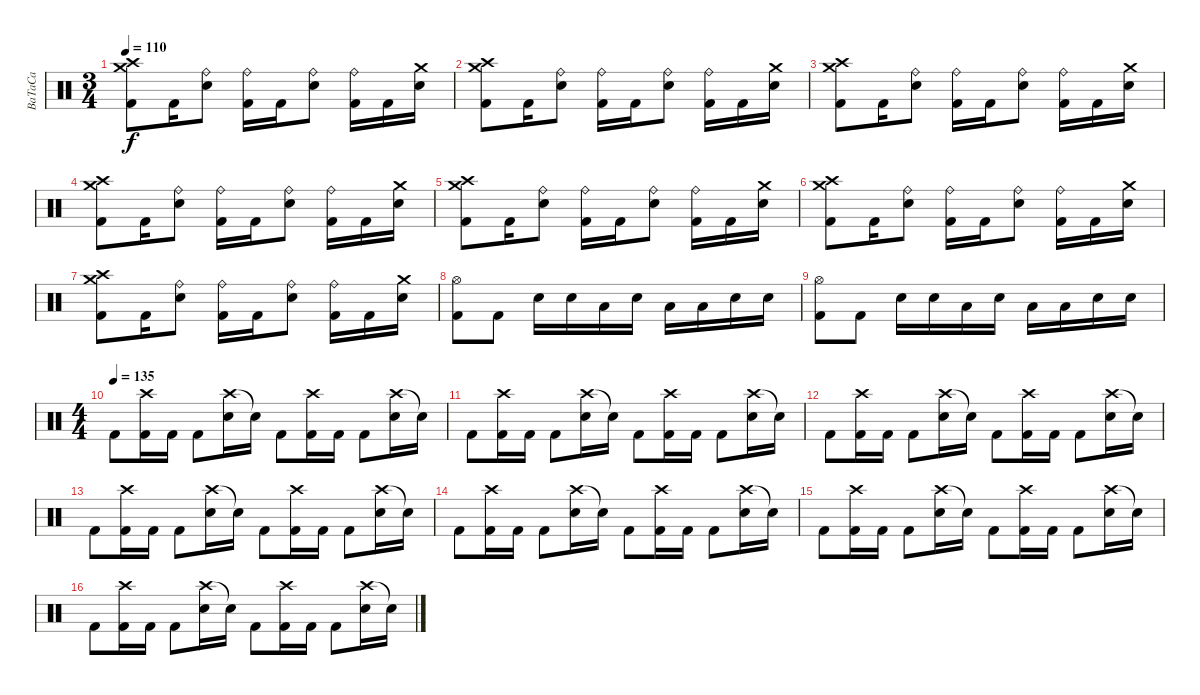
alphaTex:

\track ("BaTaCa" "BaTaCa") {instrument percussion}
\staff {score}
\articulation defaults
\ts (3 4)
\tempo 110
\clef neutral
\ks c
("Crash medium (hit)" "Crash high (hit)" "Kick (hit) 2").8{dy f} "Kick (hit) 2".16 ("Ride (bell)" "Electric Snare (hit)").8 ("Ride (bell)" "Kick (hit) 2").16 "Kick (hit) 2".16 ("Ride (bell)" "Electric Snare (hit)").8 ("Ride (bell)" "Kick (hit) 2").16 "Kick (hit) 2".16 ("Crash medium (hit)" "Electric Snare (hit)").16 |
("Crash medium (hit)" "Crash high (hit)" "Kick (hit) 2").8 "Kick (hit) 2".16 ("Ride (bell)" "Electric Snare (hit)").8 ("Ride (bell)" "Kick (hit) 2").16 "Kick (hit) 2".16 ("Ride (bell)" "Electric Snare (hit)").8 ("Ride (bell)" "Kick (hit) 2").16 "Kick (hit) 2".16 ("Crash medium (hit)" "Electric Snare (hit)").16 |
("Crash medium (hit)" "Crash high (hit)" "Kick (hit) 2").8 "Kick (hit) 2".16 ("Ride (bell)" "Electric Snare (hit)").8 ("Ride (bell)" "Kick (hit) 2").16 "Kick (hit) 2".16 ("Ride (bell)" "Electric Snare (hit)").8 ("Ride (bell)" "Kick (hit) 2").16 "Kick (hit) 2".16 ("Crash medium (hit)" "Electric Snare (hit)").16 |
("Crash medium (hit)" "Crash high (hit)" "Kick (hit) 2").8 "Kick (hit) 2".16 ("Ride (bell)" "Electric Snare (hit)").8 ("Ride (bell)" "Kick (hit) 2").16 "Kick (hit) 2".16 ("Ride (bell)" "Electric Snare (hit)").8 ("Ride (bell)" "Kick (hit) 2").16 "Kick (hit) 2".16 ("Crash medium (hit)" "Electric Snare (hit)").16 |
("Crash medium (hit)" "Crash high (hit)" "Kick (hit) 2").8 "Kick (hit) 2".16 ("Ride (bell)" "Electric Snare (hit)").8 ("Ride (bell)" "Kick (hit) 2").16 "Kick (hit) 2".16 ("Ride (bell)" "Electric Snare (hit)").8 ("Ride (bell)" "Kick (hit) 2").16 "Kick (hit) 2".16 ("Crash medium (hit)" "Electric Snare (hit)").16 |
("Crash medium (hit)" "Crash high (hit)" "Kick (hit) 2").8 "Kick (hit) 2".16 ("Ride (bell)" "Electric Snare (hit)").8 ("Ride (bell)" "Kick (hit) 2").16 "Kick (hit) 2".16 ("Ride (bell)" "Electric Snare (hit)").8 ("Ride (bell)" "Kick (hit) 2").16 "Kick (hit) 2".16 ("Crash medium (hit)" "Electric Snare (hit)").16 |
("Crash medium (hit)" "Crash high (hit)" "Kick (hit) 2").8 "Kick (hit) 2".16 ("Ride (bell)" "Electric Snare (hit)").8 ("Ride (bell)" "Kick (hit) 2").16 "Kick (hit) 2".16 ("Ride (bell)" "Electric Snare (hit)").8 ("Ride (bell)" "Kick (hit) 2").16 "Kick (hit) 2".16 ("Crash medium (hit)" "Electric Snare (hit)").16 |
("Hi-Hat (open)" "Kick (hit) 2").8 "Kick (hit) 2".8 "Electric Snare (hit)".16 "Electric Snare (hit)".16 "Low Tom (hit)".16 "Electric Snare (hit)".16 "Low Tom (hit)".16 "Low Tom (hit)".16 "Electric Snare (hit)".16 "Electric Snare (hit)".16 |
("Hi-Hat (open)" "Kick (hit) 2").8 "Kick (hit) 2".8 "Electric Snare (hit)".16 "Electric Snare (hit)".16 "Low Tom (hit)".16 "Electric Snare (hit)".16 "Low Tom (hit)".16 "Low Tom (hit)".16 "Electric Snare (hit)".16 "Electric Snare (hit)".16 |
\ts (4 4)
\tempo (135)
"Kick (hit) 2".8 ("Crash high (hit)" "Kick (hit) 2").16 "Kick (hit) 2".16 "Kick (hit) 2".8 ("Crash high (hit)" "Electric Snare (hit)").16 "Electric Snare (hit)"{t}.16 "Kick (hit) 2".8 ("Crash high (hit)" "Kick (hit) 2").16 "Kick (hit) 2".16 "Kick (hit) 2".8 ("Crash high (hit)" "Electric Snare (hit)").16 "Electric Snare (hit)"{t}.16 |
"Kick (hit) 2".8 ("Crash high (hit)" "Kick (hit) 2").16 "Kick (hit) 2".16 "Kick (hit) 2".8 ("Crash high (hit)" "Electric Snare (hit)").16 "Electric Snare (hit)"{t}.16 "Kick (hit) 2".8 ("Crash high (hit)" "Kick (hit) 2").16 "Kick (hit) 2".16 "Kick (hit) 2".8 ("Crash high (hit)" "Electric Snare (hit)").16 "Electric Snare (hit)"{t}.16 |
"Kick (hit) 2".8 ("Crash high (hit)" "Kick (hit) 2").16 "Kick (hit) 2".16 "Kick (hit) 2".8 ("Crash high (hit)" "Electric Snare (hit)").16 "Electric Snare (hit)"{t}.16 "Kick (hit) 2".8 ("Crash high (hit)" "Kick (hit) 2").16 "Kick (hit) 2".16 "Kick (hit) 2".8 ("Crash high (hit)" "Electric Snare (hit)").16 "Electric Snare (hit)"{t}.16 |
"Kick (hit) 2".8 ("Crash high (hit)" "Kick (hit) 2").16 "Kick (hit) 2".16 "Kick (hit) 2".8 ("Crash high (hit)" "Electric Snare (hit)").16 "Electric Snare (hit)"{t}.16 "Kick (hit) 2".8 ("Crash high (hit)" "Kick (hit) 2").16 "Kick (hit) 2".16 "Kick (hit) 2".8 ("Crash high (hit)" "Electric Snare (hit)").16 "Electric Snare (hit)"{t}.16 |
"Kick (hit) 2".8 ("Crash high (hit)" "Kick (hit) 2").16 "Kick (hit) 2".16 "Kick (hit) 2".8 ("Crash high (hit)" "Electric Snare (hit)").16 "Electric Snare (hit)"{t}.16 "Kick (hit) 2".8 ("Crash high (hit)" "Kick (hit) 2").16 "Kick (hit) 2".16 "Kick (hit) 2".8 ("Crash high (hit)" "Electric Snare (hit)").16 "Electric Snare (hit)"{t}.16 |
"Kick (hit) 2".8 ("Crash high (hit)" "Kick (hit) 2").16 "Kick (hit) 2".16 "Kick (hit) 2".8 ("Crash high (hit)" "Electric Snare (hit)").16 "Electric Snare (hit)"{t}.16 "Kick (hit) 2".8 ("Crash high (hit)" "Kick (hit) 2").16 "Kick (hit) 2".16 "Kick (hit) 2".8 ("Crash high (hit)" "Electric Snare (hit)").16 "Electric Snare (hit)"{t}.16 |
"Kick (hit) 2".8 ("Crash high (hit)" "Kick (hit) 2").16 "Kick (hit) 2".16 "Kick (hit) 2".8 ("Crash high (hit)" "Electric Snare (hit)").16 "Electric Snare (hit)"{t}.16 "Kick (hit) 2".8 ("Crash high (hit)" "Kick (hit) 2").16 "Kick (hit) 2".16 "Kick (hit) 2".8 ("Crash high (hit)" "Electric Snare (hit)").16 "Electric Snare (hit)"{t}.16
